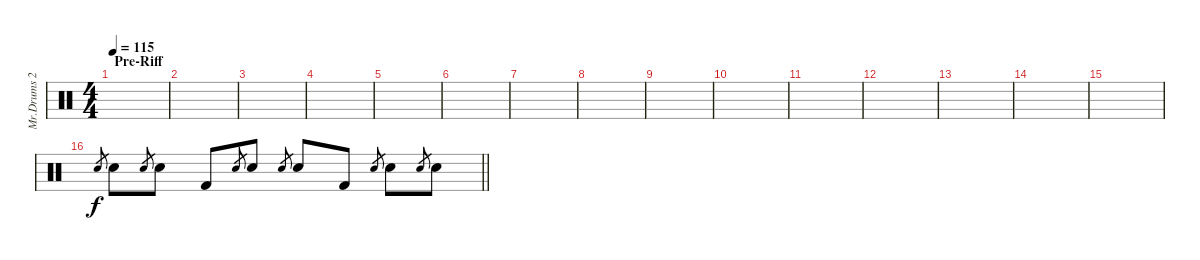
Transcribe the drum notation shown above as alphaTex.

\track ("Mr.Drums 2" "Mr.Drums 2") {instrument percussion}
\staff {score}
\articulation defaults
\ts (4 4)
\section ("" "Pre-Riff")
\tempo 115
\clef neutral
\ks c
|
|
|
|
|
|
|
|
|
|
|
|
|
|
|
\barLineRight lightlight "Electric Snare (hit)".8{gr} "Electric Snare (hit)".8 "Electric Snare (hit)".8{gr} "Electric Snare (hit)".8 "Kick (hit) 2".8 "Electric Snare (hit)".8{gr} "Electric Snare (hit)".8 "Electric Snare (hit)".8{gr} "Electric Snare (hit)".8 "Kick (hit) 2".8 "Electric Snare (hit)".8{gr} "Electric Snare (hit)".8 "Electric Snare (hit)".8{gr} "Electric Snare (hit)".8
